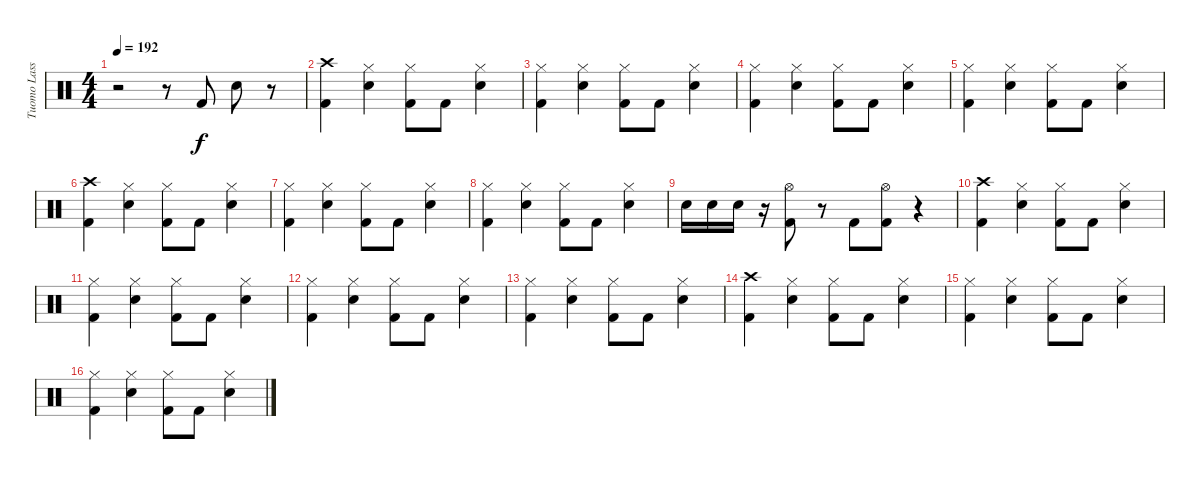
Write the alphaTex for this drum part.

\track ("Tuomo Lassilla" "Tuomo Lass") {instrument percussion}
\staff {score}
\articulation defaults
\ts (4 4)
\tempo 192
\clef neutral
\ks c
r.2{dy f} r.8 "Kick (hit) 2".8 "Electric Snare (hit)".8 r.8 |
("Kick (hit) 2" "Crash high (hit)").4 ("Electric Snare (hit)" "Hi-Hat (closed)").4 ("Kick (hit) 2" "Hi-Hat (closed)").8 "Kick (hit) 2".8 ("Electric Snare (hit)" "Hi-Hat (closed)").4 |
("Kick (hit) 2" "Hi-Hat (closed)").4 ("Electric Snare (hit)" "Hi-Hat (closed)").4 ("Kick (hit) 2" "Hi-Hat (closed)").8 "Kick (hit) 2".8 ("Electric Snare (hit)" "Hi-Hat (closed)").4 |
("Kick (hit) 2" "Hi-Hat (closed)").4 ("Electric Snare (hit)" "Hi-Hat (closed)").4 ("Kick (hit) 2" "Hi-Hat (closed)").8 "Kick (hit) 2".8 ("Electric Snare (hit)" "Hi-Hat (closed)").4 |
("Kick (hit) 2" "Hi-Hat (closed)").4 ("Electric Snare (hit)" "Hi-Hat (closed)").4 ("Kick (hit) 2" "Hi-Hat (closed)").8 "Kick (hit) 2".8 ("Electric Snare (hit)" "Hi-Hat (closed)").4 |
("Kick (hit) 2" "Crash high (hit)").4 ("Electric Snare (hit)" "Hi-Hat (closed)").4 ("Kick (hit) 2" "Hi-Hat (closed)").8 "Kick (hit) 2".8 ("Electric Snare (hit)" "Hi-Hat (closed)").4 |
("Kick (hit) 2" "Hi-Hat (closed)").4 ("Electric Snare (hit)" "Hi-Hat (closed)").4 ("Kick (hit) 2" "Hi-Hat (closed)").8 "Kick (hit) 2".8 ("Electric Snare (hit)" "Hi-Hat (closed)").4 |
("Kick (hit) 2" "Hi-Hat (closed)").4 ("Electric Snare (hit)" "Hi-Hat (closed)").4 ("Kick (hit) 2" "Hi-Hat (closed)").8 "Kick (hit) 2".8 ("Electric Snare (hit)" "Hi-Hat (closed)").4 |
"Snare (hit) 2".16 "Snare (hit) 2".16 "Electric Snare (hit)".16 r.16 ("Hi-Hat (open)" "Kick (hit) 2").8 r.8 "Kick (hit) 2".8 ("Hi-Hat (open)" "Kick (hit) 2").8 r.4 |
("Kick (hit) 2" "Crash high (hit)").4 ("Electric Snare (hit)" "Hi-Hat (closed)").4 ("Kick (hit) 2" "Hi-Hat (closed)").8 "Kick (hit) 2".8 ("Electric Snare (hit)" "Hi-Hat (closed)").4 |
("Kick (hit) 2" "Hi-Hat (closed)").4 ("Electric Snare (hit)" "Hi-Hat (closed)").4 ("Kick (hit) 2" "Hi-Hat (closed)").8 "Kick (hit) 2".8 ("Electric Snare (hit)" "Hi-Hat (closed)").4 |
("Kick (hit) 2" "Hi-Hat (closed)").4 ("Electric Snare (hit)" "Hi-Hat (closed)").4 ("Kick (hit) 2" "Hi-Hat (closed)").8 "Kick (hit) 2".8 ("Electric Snare (hit)" "Hi-Hat (closed)").4 |
("Kick (hit) 2" "Hi-Hat (closed)").4 ("Electric Snare (hit)" "Hi-Hat (closed)").4 ("Kick (hit) 2" "Hi-Hat (closed)").8 "Kick (hit) 2".8 ("Electric Snare (hit)" "Hi-Hat (closed)").4 |
("Kick (hit) 2" "Crash high (hit)").4 ("Electric Snare (hit)" "Hi-Hat (closed)").4 ("Kick (hit) 2" "Hi-Hat (closed)").8 "Kick (hit) 2".8 ("Electric Snare (hit)" "Hi-Hat (closed)").4 |
("Kick (hit) 2" "Hi-Hat (closed)").4 ("Electric Snare (hit)" "Hi-Hat (closed)").4 ("Kick (hit) 2" "Hi-Hat (closed)").8 "Kick (hit) 2".8 ("Electric Snare (hit)" "Hi-Hat (closed)").4 |
("Kick (hit) 2" "Hi-Hat (closed)").4 ("Electric Snare (hit)" "Hi-Hat (closed)").4 ("Kick (hit) 2" "Hi-Hat (closed)").8 "Kick (hit) 2".8 ("Electric Snare (hit)" "Hi-Hat (closed)").4
